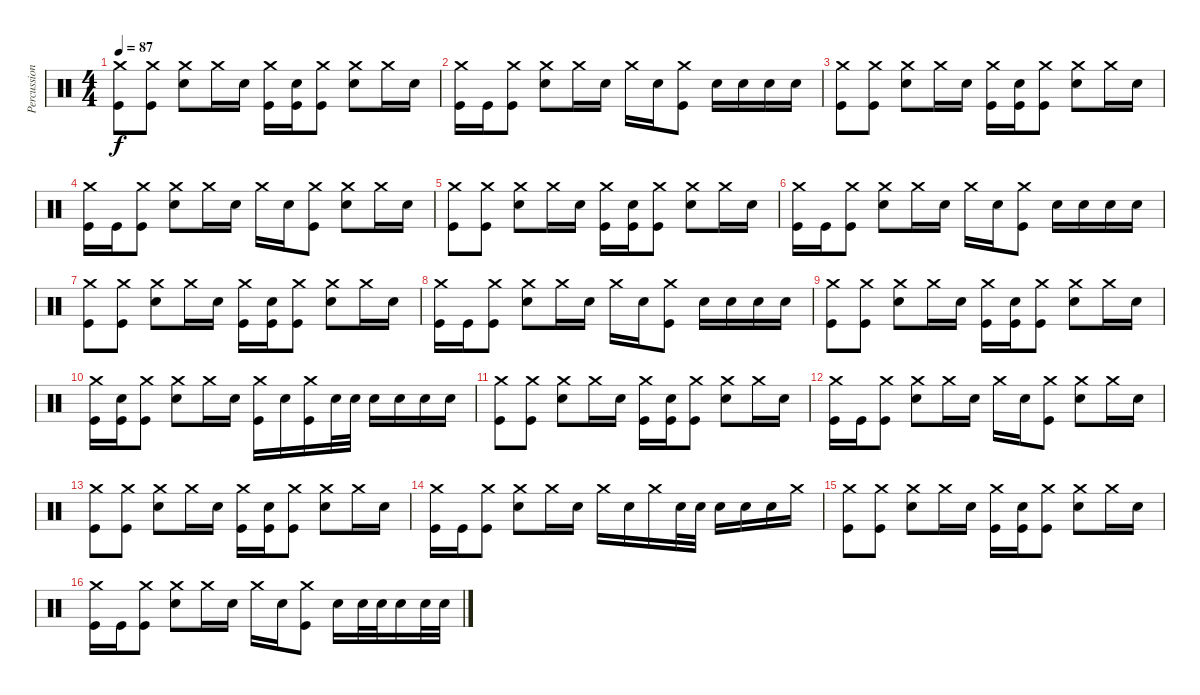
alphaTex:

\track ("Percussion" "Percussion") {instrument percussion}
\staff {score}
\articulation defaults
\ts (4 4)
\tempo 87
\clef neutral
\ks c
("Crash medium (hit)" "Kick (hit)").8{dy f} ("Crash medium (hit)" "Kick (hit)").8 ("Crash medium (hit)" "Snare (hit) 2").8 "Crash medium (hit)".16 "Snare (hit) 2".16 ("Crash medium (hit)" "Kick (hit)").16 ("Snare (hit) 2" "Kick (hit)").16 ("Crash medium (hit)" "Kick (hit)").8 ("Crash medium (hit)" "Snare (hit) 2").8 "Crash medium (hit)".16 "Snare (hit) 2".16 |
("Crash medium (hit)" "Kick (hit)").16 "Kick (hit)".16 ("Crash medium (hit)" "Kick (hit)").8 ("Crash medium (hit)" "Snare (hit) 2").8 "Crash medium (hit)".16 "Snare (hit) 2".16 "Crash medium (hit)".16 "Snare (hit) 2".16 ("Crash medium (hit)" "Kick (hit)").8 "Snare (hit) 2".16 "Snare (hit) 2".16 "Snare (hit) 2".16 "Snare (hit) 2".16 |
("Crash medium (hit)" "Kick (hit)").8 ("Crash medium (hit)" "Kick (hit)").8 ("Crash medium (hit)" "Snare (hit) 2").8 "Crash medium (hit)".16 "Snare (hit) 2".16 ("Crash medium (hit)" "Kick (hit)").16 ("Snare (hit) 2" "Kick (hit)").16 ("Crash medium (hit)" "Kick (hit)").8 ("Crash medium (hit)" "Snare (hit) 2").8 "Crash medium (hit)".16 "Snare (hit) 2".16 |
("Crash medium (hit)" "Kick (hit)").16 "Kick (hit)".16 ("Crash medium (hit)" "Kick (hit)").8 ("Crash medium (hit)" "Snare (hit) 2").8 "Crash medium (hit)".16 "Snare (hit) 2".16 "Crash medium (hit)".16 "Snare (hit) 2".16 ("Crash medium (hit)" "Kick (hit)").8 ("Crash medium (hit)" "Snare (hit) 2").8 "Crash medium (hit)".16 "Snare (hit) 2".16 |
("Crash medium (hit)" "Kick (hit)").8 ("Crash medium (hit)" "Kick (hit)").8 ("Crash medium (hit)" "Snare (hit) 2").8 "Crash medium (hit)".16 "Snare (hit) 2".16 ("Crash medium (hit)" "Kick (hit)").16 ("Snare (hit) 2" "Kick (hit)").16 ("Crash medium (hit)" "Kick (hit)").8 ("Crash medium (hit)" "Snare (hit) 2").8 "Crash medium (hit)".16 "Snare (hit) 2".16 |
("Crash medium (hit)" "Kick (hit)").16 "Kick (hit)".16 ("Crash medium (hit)" "Kick (hit)").8 ("Crash medium (hit)" "Snare (hit) 2").8 "Crash medium (hit)".16 "Snare (hit) 2".16 "Crash medium (hit)".16 "Snare (hit) 2".16 ("Crash medium (hit)" "Kick (hit)").8 "Snare (hit) 2".16 "Snare (hit) 2".16 "Snare (hit) 2".16 "Snare (hit) 2".16 |
("Crash medium (hit)" "Kick (hit)").8 ("Crash medium (hit)" "Kick (hit)").8 ("Crash medium (hit)" "Snare (hit) 2").8 "Crash medium (hit)".16 "Snare (hit) 2".16 ("Crash medium (hit)" "Kick (hit)").16 ("Snare (hit) 2" "Kick (hit)").16 ("Crash medium (hit)" "Kick (hit)").8 ("Crash medium (hit)" "Snare (hit) 2").8 "Crash medium (hit)".16 "Snare (hit) 2".16 |
("Crash medium (hit)" "Kick (hit)").16 "Kick (hit)".16 ("Crash medium (hit)" "Kick (hit)").8 ("Crash medium (hit)" "Snare (hit) 2").8 "Crash medium (hit)".16 "Snare (hit) 2".16 "Crash medium (hit)".16 "Snare (hit) 2".16 ("Crash medium (hit)" "Kick (hit)").8 "Snare (hit) 2".16 "Snare (hit) 2".16 "Snare (hit) 2".16 "Snare (hit) 2".16 |
("Crash medium (hit)" "Kick (hit)").8 ("Crash medium (hit)" "Kick (hit)").8 ("Crash medium (hit)" "Snare (hit) 2").8 "Crash medium (hit)".16 "Snare (hit) 2".16 ("Crash medium (hit)" "Kick (hit)").16 ("Snare (hit) 2" "Kick (hit)").16 ("Crash medium (hit)" "Kick (hit)").8 ("Crash medium (hit)" "Snare (hit) 2").8 "Crash medium (hit)".16 "Snare (hit) 2".16 |
("Crash medium (hit)" "Kick (hit)").16 ("Snare (hit) 2" "Kick (hit)").16 ("Crash medium (hit)" "Kick (hit)").8 ("Crash medium (hit)" "Snare (hit) 2").8 "Crash medium (hit)".16 "Snare (hit) 2".16 ("Crash medium (hit)" "Kick (hit)").16 "Snare (hit) 2".16 ("Crash medium (hit)" "Kick (hit)").16 "Snare (hit) 2".32 "Snare (hit) 2".32 "Snare (hit) 2".16 "Snare (hit) 2".16 "Snare (hit) 2".16 "Snare (hit) 2".16 |
("Crash medium (hit)" "Kick (hit)").8 ("Crash medium (hit)" "Kick (hit)").8 ("Crash medium (hit)" "Snare (hit) 2").8 "Crash medium (hit)".16 "Snare (hit) 2".16 ("Crash medium (hit)" "Kick (hit)").16 ("Snare (hit) 2" "Kick (hit)").16 ("Crash medium (hit)" "Kick (hit)").8 ("Crash medium (hit)" "Snare (hit) 2").8 "Crash medium (hit)".16 "Snare (hit) 2".16 |
("Crash medium (hit)" "Kick (hit)").16 "Kick (hit)".16 ("Crash medium (hit)" "Kick (hit)").8 ("Crash medium (hit)" "Snare (hit) 2").8 "Crash medium (hit)".16 "Snare (hit) 2".16 "Crash medium (hit)".16 "Snare (hit) 2".16 ("Crash medium (hit)" "Kick (hit)").8 ("Crash medium (hit)" "Snare (hit) 2").8 "Crash medium (hit)".16 "Snare (hit) 2".16 |
("Crash medium (hit)" "Kick (hit)").8 ("Crash medium (hit)" "Kick (hit)").8 ("Crash medium (hit)" "Snare (hit) 2").8 "Crash medium (hit)".16 "Snare (hit) 2".16 ("Crash medium (hit)" "Kick (hit)").16 ("Snare (hit) 2" "Kick (hit)").16 ("Crash medium (hit)" "Kick (hit)").8 ("Crash medium (hit)" "Snare (hit) 2").8 "Crash medium (hit)".16 "Snare (hit) 2".16 |
("Crash medium (hit)" "Kick (hit)").16 "Kick (hit)".16 ("Crash medium (hit)" "Kick (hit)").8 ("Crash medium (hit)" "Snare (hit) 2").8 "Crash medium (hit)".16 "Snare (hit) 2".16 "Crash medium (hit)".16 "Snare (hit) 2".16 "Crash medium (hit)".16 "Snare (hit) 2".32 "Snare (hit) 2".32 "Snare (hit) 2".16 "Snare (hit) 2".16 "Snare (hit) 2".16 "Crash medium (hit)".16 |
("Crash medium (hit)" "Kick (hit)").8 ("Crash medium (hit)" "Kick (hit)").8 ("Crash medium (hit)" "Snare (hit) 2").8 "Crash medium (hit)".16 "Snare (hit) 2".16 ("Crash medium (hit)" "Kick (hit)").16 ("Snare (hit) 2" "Kick (hit)").16 ("Crash medium (hit)" "Kick (hit)").8 ("Crash medium (hit)" "Snare (hit) 2").8 "Crash medium (hit)".16 "Snare (hit) 2".16 |
("Crash medium (hit)" "Kick (hit)").16 "Kick (hit)".16 ("Crash medium (hit)" "Kick (hit)").8 ("Crash medium (hit)" "Snare (hit) 2").8 "Crash medium (hit)".16 "Snare (hit) 2".16 "Crash medium (hit)".16 "Snare (hit) 2".16 ("Crash medium (hit)" "Kick (hit)").8 "Snare (hit) 2".16 "Snare (hit) 2".32 "Snare (hit) 2".32 "Snare (hit) 2".16 "Snare (hit) 2".32 "Snare (hit) 2".32
